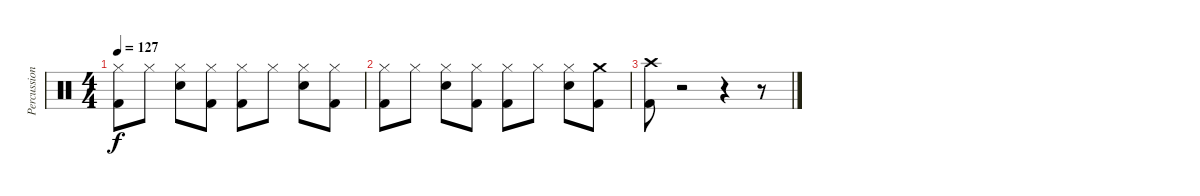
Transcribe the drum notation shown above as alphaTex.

\track ("Percussions" "Percussion") {instrument percussion}
\staff {score}
\articulation defaults
\ts (4 4)
\tempo 127
\clef neutral
\ks c
("Hi-Hat (closed)" "Kick (hit) 2").8{dy f} "Hi-Hat (closed)".8 ("Hi-Hat (closed)" "Electric Snare (hit)").8 ("Hi-Hat (closed)" "Kick (hit) 2").8 ("Hi-Hat (closed)" "Kick (hit) 2").8 "Hi-Hat (closed)".8 ("Hi-Hat (closed)" "Electric Snare (hit)").8 ("Hi-Hat (closed)" "Kick (hit) 2").8 |
("Hi-Hat (closed)" "Kick (hit) 2").8 "Hi-Hat (closed)".8 ("Hi-Hat (closed)" "Electric Snare (hit)").8 ("Hi-Hat (closed)" "Kick (hit) 2").8 ("Hi-Hat (closed)" "Kick (hit) 2").8 "Hi-Hat (closed)".8 ("Hi-Hat (closed)" "Electric Snare (hit)").8 ("Crash medium (hit)" "Kick (hit) 2").8 |
("Crash high (hit)" "Kick (hit) 2").8 r.2 r.4 r.8
